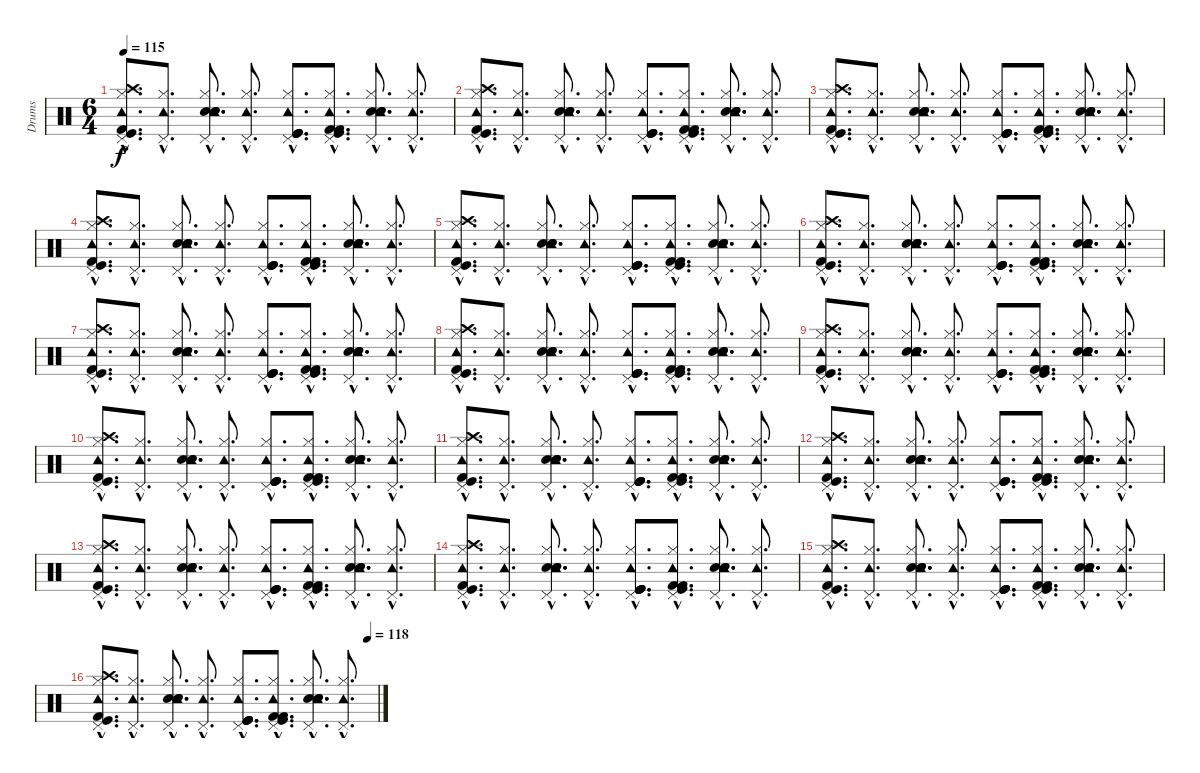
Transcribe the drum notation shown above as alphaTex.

\track ("Drums" "Drums") {instrument percussion}
\staff {score}
\articulation defaults
\ts (6 4)
\tempo 115
\clef neutral
\ks c
("Pedal Hi-Hat (hit)"{hac} "Crash high (hit)"{hac} "Kick (hit)"{hac} "Kick (hit) 2"{hac} "Hi-Hat (closed)"{hac} "Tambourine (hit)"{hac}).8{d dy f} ("Pedal Hi-Hat (hit)"{hac} "Hi-Hat (closed)"{hac} "Tambourine (hit)"{hac}).8{d} ("Pedal Hi-Hat (hit)"{hac} "Electric Snare (hit)"{hac} "Hand Clap (hit)"{hac} "Hand Clap (hit)"{hac} "Hi-Hat (closed)"{hac} "Tambourine (hit)"{hac}).8{d} ("Pedal Hi-Hat (hit)"{hac} "Hi-Hat (closed)"{hac} "Tambourine (hit)"{hac}).8{d} ("Pedal Hi-Hat (hit)"{hac} "Kick (hit)"{hac} "Kick (hit)"{hac} "Kick (hit)"{hac} "Hi-Hat (closed)"{hac} "Tambourine (hit)"{hac}).8{d} ("Pedal Hi-Hat (hit)"{hac} "Kick (hit)"{hac} "Kick (hit) 2"{hac} "Kick (hit) 2"{hac} "Hi-Hat (closed)"{hac} "Tambourine (hit)"{hac}).8{d} ("Pedal Hi-Hat (hit)"{hac} "Hand Clap (hit)"{hac} "Hand Clap (hit)"{hac} "Electric Snare (hit)"{hac} "Hi-Hat (closed)"{hac} "Tambourine (hit)"{hac}).8{d} ("Pedal Hi-Hat (hit)"{hac} "Hi-Hat (closed)"{hac} "Tambourine (hit)"{hac}).8{d} |
("Pedal Hi-Hat (hit)"{hac} "Crash high (hit)"{hac} "Kick (hit)"{hac} "Kick (hit) 2"{hac} "Hi-Hat (closed)"{hac} "Tambourine (hit)"{hac}).8{d} ("Pedal Hi-Hat (hit)"{hac} "Hi-Hat (closed)"{hac} "Tambourine (hit)"{hac}).8{d} ("Pedal Hi-Hat (hit)"{hac} "Electric Snare (hit)"{hac} "Hand Clap (hit)"{hac} "Hand Clap (hit)"{hac} "Hi-Hat (closed)"{hac} "Tambourine (hit)"{hac}).8{d} ("Pedal Hi-Hat (hit)"{hac} "Hi-Hat (closed)"{hac} "Tambourine (hit)"{hac}).8{d} ("Pedal Hi-Hat (hit)"{hac} "Kick (hit)"{hac} "Kick (hit)"{hac} "Kick (hit)"{hac} "Hi-Hat (closed)"{hac} "Tambourine (hit)"{hac}).8{d} ("Pedal Hi-Hat (hit)"{hac} "Kick (hit)"{hac} "Kick (hit) 2"{hac} "Kick (hit) 2"{hac} "Hi-Hat (closed)"{hac} "Tambourine (hit)"{hac}).8{d} ("Pedal Hi-Hat (hit)"{hac} "Hand Clap (hit)"{hac} "Hand Clap (hit)"{hac} "Electric Snare (hit)"{hac} "Hi-Hat (closed)"{hac} "Tambourine (hit)"{hac}).8{d} ("Pedal Hi-Hat (hit)"{hac} "Hi-Hat (closed)"{hac} "Tambourine (hit)"{hac}).8{d} |
("Pedal Hi-Hat (hit)"{hac} "Crash high (hit)"{hac} "Kick (hit)"{hac} "Kick (hit) 2"{hac} "Hi-Hat (closed)"{hac} "Tambourine (hit)"{hac}).8{d} ("Pedal Hi-Hat (hit)"{hac} "Hi-Hat (closed)"{hac} "Tambourine (hit)"{hac}).8{d} ("Pedal Hi-Hat (hit)"{hac} "Electric Snare (hit)"{hac} "Hand Clap (hit)"{hac} "Hand Clap (hit)"{hac} "Hi-Hat (closed)"{hac} "Tambourine (hit)"{hac}).8{d} ("Pedal Hi-Hat (hit)"{hac} "Hi-Hat (closed)"{hac} "Tambourine (hit)"{hac}).8{d} ("Pedal Hi-Hat (hit)"{hac} "Kick (hit)"{hac} "Kick (hit)"{hac} "Kick (hit)"{hac} "Hi-Hat (closed)"{hac} "Tambourine (hit)"{hac}).8{d} ("Pedal Hi-Hat (hit)"{hac} "Kick (hit)"{hac} "Kick (hit) 2"{hac} "Kick (hit) 2"{hac} "Hi-Hat (closed)"{hac} "Tambourine (hit)"{hac}).8{d} ("Pedal Hi-Hat (hit)"{hac} "Hand Clap (hit)"{hac} "Hand Clap (hit)"{hac} "Electric Snare (hit)"{hac} "Hi-Hat (closed)"{hac} "Tambourine (hit)"{hac}).8{d} ("Pedal Hi-Hat (hit)"{hac} "Hi-Hat (closed)"{hac} "Tambourine (hit)"{hac}).8{d} |
("Pedal Hi-Hat (hit)"{hac} "Crash high (hit)"{hac} "Kick (hit)"{hac} "Kick (hit) 2"{hac} "Hi-Hat (closed)"{hac} "Tambourine (hit)"{hac}).8{d} ("Pedal Hi-Hat (hit)"{hac} "Hi-Hat (closed)"{hac} "Tambourine (hit)"{hac}).8{d} ("Pedal Hi-Hat (hit)"{hac} "Electric Snare (hit)"{hac} "Hand Clap (hit)"{hac} "Hand Clap (hit)"{hac} "Hi-Hat (closed)"{hac} "Tambourine (hit)"{hac}).8{d} ("Pedal Hi-Hat (hit)"{hac} "Hi-Hat (closed)"{hac} "Tambourine (hit)"{hac}).8{d} ("Pedal Hi-Hat (hit)"{hac} "Kick (hit)"{hac} "Kick (hit)"{hac} "Kick (hit)"{hac} "Hi-Hat (closed)"{hac} "Tambourine (hit)"{hac}).8{d} ("Pedal Hi-Hat (hit)"{hac} "Kick (hit)"{hac} "Kick (hit) 2"{hac} "Kick (hit) 2"{hac} "Hi-Hat (closed)"{hac} "Tambourine (hit)"{hac}).8{d} ("Pedal Hi-Hat (hit)"{hac} "Hand Clap (hit)"{hac} "Hand Clap (hit)"{hac} "Electric Snare (hit)"{hac} "Hi-Hat (closed)"{hac} "Tambourine (hit)"{hac}).8{d} ("Pedal Hi-Hat (hit)"{hac} "Hi-Hat (closed)"{hac} "Tambourine (hit)"{hac}).8{d} |
("Pedal Hi-Hat (hit)"{hac} "Crash high (hit)"{hac} "Kick (hit)"{hac} "Kick (hit) 2"{hac} "Hi-Hat (closed)"{hac} "Tambourine (hit)"{hac}).8{d} ("Pedal Hi-Hat (hit)"{hac} "Hi-Hat (closed)"{hac} "Tambourine (hit)"{hac}).8{d} ("Pedal Hi-Hat (hit)"{hac} "Electric Snare (hit)"{hac} "Hand Clap (hit)"{hac} "Hand Clap (hit)"{hac} "Hi-Hat (closed)"{hac} "Tambourine (hit)"{hac}).8{d} ("Pedal Hi-Hat (hit)"{hac} "Hi-Hat (closed)"{hac} "Tambourine (hit)"{hac}).8{d} ("Pedal Hi-Hat (hit)"{hac} "Kick (hit)"{hac} "Kick (hit)"{hac} "Kick (hit)"{hac} "Hi-Hat (closed)"{hac} "Tambourine (hit)"{hac}).8{d} ("Pedal Hi-Hat (hit)"{hac} "Kick (hit)"{hac} "Kick (hit) 2"{hac} "Kick (hit) 2"{hac} "Hi-Hat (closed)"{hac} "Tambourine (hit)"{hac}).8{d} ("Pedal Hi-Hat (hit)"{hac} "Hand Clap (hit)"{hac} "Hand Clap (hit)"{hac} "Electric Snare (hit)"{hac} "Hi-Hat (closed)"{hac} "Tambourine (hit)"{hac}).8{d} ("Pedal Hi-Hat (hit)"{hac} "Hi-Hat (closed)"{hac} "Tambourine (hit)"{hac}).8{d} |
("Pedal Hi-Hat (hit)"{hac} "Crash high (hit)"{hac} "Kick (hit)"{hac} "Kick (hit) 2"{hac} "Hi-Hat (closed)"{hac} "Tambourine (hit)"{hac}).8{d} ("Pedal Hi-Hat (hit)"{hac} "Hi-Hat (closed)"{hac} "Tambourine (hit)"{hac}).8{d} ("Pedal Hi-Hat (hit)"{hac} "Electric Snare (hit)"{hac} "Hand Clap (hit)"{hac} "Hand Clap (hit)"{hac} "Hi-Hat (closed)"{hac} "Tambourine (hit)"{hac}).8{d} ("Pedal Hi-Hat (hit)"{hac} "Hi-Hat (closed)"{hac} "Tambourine (hit)"{hac}).8{d} ("Pedal Hi-Hat (hit)"{hac} "Kick (hit)"{hac} "Kick (hit)"{hac} "Kick (hit)"{hac} "Hi-Hat (closed)"{hac} "Tambourine (hit)"{hac}).8{d} ("Pedal Hi-Hat (hit)"{hac} "Kick (hit)"{hac} "Kick (hit) 2"{hac} "Kick (hit) 2"{hac} "Hi-Hat (closed)"{hac} "Tambourine (hit)"{hac}).8{d} ("Pedal Hi-Hat (hit)"{hac} "Hand Clap (hit)"{hac} "Hand Clap (hit)"{hac} "Electric Snare (hit)"{hac} "Hi-Hat (closed)"{hac} "Tambourine (hit)"{hac}).8{d} ("Pedal Hi-Hat (hit)"{hac} "Hi-Hat (closed)"{hac} "Tambourine (hit)"{hac}).8{d} |
("Pedal Hi-Hat (hit)"{hac} "Crash high (hit)"{hac} "Kick (hit)"{hac} "Kick (hit) 2"{hac} "Hi-Hat (closed)"{hac} "Tambourine (hit)"{hac}).8{d} ("Pedal Hi-Hat (hit)"{hac} "Hi-Hat (closed)"{hac} "Tambourine (hit)"{hac}).8{d} ("Pedal Hi-Hat (hit)"{hac} "Electric Snare (hit)"{hac} "Hand Clap (hit)"{hac} "Hand Clap (hit)"{hac} "Hi-Hat (closed)"{hac} "Tambourine (hit)"{hac}).8{d} ("Pedal Hi-Hat (hit)"{hac} "Hi-Hat (closed)"{hac} "Tambourine (hit)"{hac}).8{d} ("Pedal Hi-Hat (hit)"{hac} "Kick (hit)"{hac} "Kick (hit)"{hac} "Kick (hit)"{hac} "Hi-Hat (closed)"{hac} "Tambourine (hit)"{hac}).8{d} ("Pedal Hi-Hat (hit)"{hac} "Kick (hit)"{hac} "Kick (hit) 2"{hac} "Kick (hit) 2"{hac} "Hi-Hat (closed)"{hac} "Tambourine (hit)"{hac}).8{d} ("Pedal Hi-Hat (hit)"{hac} "Hand Clap (hit)"{hac} "Hand Clap (hit)"{hac} "Electric Snare (hit)"{hac} "Hi-Hat (closed)"{hac} "Tambourine (hit)"{hac}).8{d} ("Pedal Hi-Hat (hit)"{hac} "Hi-Hat (closed)"{hac} "Tambourine (hit)"{hac}).8{d} |
("Pedal Hi-Hat (hit)"{hac} "Crash high (hit)"{hac} "Kick (hit)"{hac} "Kick (hit) 2"{hac} "Hi-Hat (closed)"{hac} "Tambourine (hit)"{hac}).8{d} ("Pedal Hi-Hat (hit)"{hac} "Hi-Hat (closed)"{hac} "Tambourine (hit)"{hac}).8{d} ("Pedal Hi-Hat (hit)"{hac} "Electric Snare (hit)"{hac} "Hand Clap (hit)"{hac} "Hand Clap (hit)"{hac} "Hi-Hat (closed)"{hac} "Tambourine (hit)"{hac}).8{d} ("Pedal Hi-Hat (hit)"{hac} "Hi-Hat (closed)"{hac} "Tambourine (hit)"{hac}).8{d} ("Pedal Hi-Hat (hit)"{hac} "Kick (hit)"{hac} "Kick (hit)"{hac} "Kick (hit)"{hac} "Hi-Hat (closed)"{hac} "Tambourine (hit)"{hac}).8{d} ("Pedal Hi-Hat (hit)"{hac} "Kick (hit)"{hac} "Kick (hit) 2"{hac} "Kick (hit) 2"{hac} "Hi-Hat (closed)"{hac} "Tambourine (hit)"{hac}).8{d} ("Pedal Hi-Hat (hit)"{hac} "Hand Clap (hit)"{hac} "Hand Clap (hit)"{hac} "Electric Snare (hit)"{hac} "Hi-Hat (closed)"{hac} "Tambourine (hit)"{hac}).8{d} ("Pedal Hi-Hat (hit)"{hac} "Hi-Hat (closed)"{hac} "Tambourine (hit)"{hac}).8{d} |
("Pedal Hi-Hat (hit)"{hac} "Crash high (hit)"{hac} "Kick (hit)"{hac} "Kick (hit) 2"{hac} "Hi-Hat (closed)"{hac} "Tambourine (hit)"{hac}).8{d} ("Pedal Hi-Hat (hit)"{hac} "Hi-Hat (closed)"{hac} "Tambourine (hit)"{hac}).8{d} ("Pedal Hi-Hat (hit)"{hac} "Electric Snare (hit)"{hac} "Hand Clap (hit)"{hac} "Hand Clap (hit)"{hac} "Hi-Hat (closed)"{hac} "Tambourine (hit)"{hac}).8{d} ("Pedal Hi-Hat (hit)"{hac} "Hi-Hat (closed)"{hac} "Tambourine (hit)"{hac}).8{d} ("Pedal Hi-Hat (hit)"{hac} "Kick (hit)"{hac} "Kick (hit)"{hac} "Kick (hit)"{hac} "Hi-Hat (closed)"{hac} "Tambourine (hit)"{hac}).8{d} ("Pedal Hi-Hat (hit)"{hac} "Kick (hit)"{hac} "Kick (hit) 2"{hac} "Kick (hit) 2"{hac} "Hi-Hat (closed)"{hac} "Tambourine (hit)"{hac}).8{d} ("Pedal Hi-Hat (hit)"{hac} "Hand Clap (hit)"{hac} "Hand Clap (hit)"{hac} "Electric Snare (hit)"{hac} "Hi-Hat (closed)"{hac} "Tambourine (hit)"{hac}).8{d} ("Pedal Hi-Hat (hit)"{hac} "Hi-Hat (closed)"{hac} "Tambourine (hit)"{hac}).8{d} |
("Pedal Hi-Hat (hit)"{hac} "Crash high (hit)"{hac} "Kick (hit)"{hac} "Kick (hit) 2"{hac} "Hi-Hat (closed)"{hac} "Tambourine (hit)"{hac}).8{d} ("Pedal Hi-Hat (hit)"{hac} "Hi-Hat (closed)"{hac} "Tambourine (hit)"{hac}).8{d} ("Pedal Hi-Hat (hit)"{hac} "Electric Snare (hit)"{hac} "Hand Clap (hit)"{hac} "Hand Clap (hit)"{hac} "Hi-Hat (closed)"{hac} "Tambourine (hit)"{hac}).8{d} ("Pedal Hi-Hat (hit)"{hac} "Hi-Hat (closed)"{hac} "Tambourine (hit)"{hac}).8{d} ("Pedal Hi-Hat (hit)"{hac} "Kick (hit)"{hac} "Kick (hit)"{hac} "Kick (hit)"{hac} "Hi-Hat (closed)"{hac} "Tambourine (hit)"{hac}).8{d} ("Pedal Hi-Hat (hit)"{hac} "Kick (hit)"{hac} "Kick (hit) 2"{hac} "Kick (hit) 2"{hac} "Hi-Hat (closed)"{hac} "Tambourine (hit)"{hac}).8{d} ("Pedal Hi-Hat (hit)"{hac} "Hand Clap (hit)"{hac} "Hand Clap (hit)"{hac} "Electric Snare (hit)"{hac} "Hi-Hat (closed)"{hac} "Tambourine (hit)"{hac}).8{d} ("Pedal Hi-Hat (hit)"{hac} "Hi-Hat (closed)"{hac} "Tambourine (hit)"{hac}).8{d} |
("Pedal Hi-Hat (hit)"{hac} "Crash high (hit)"{hac} "Kick (hit)"{hac} "Kick (hit) 2"{hac} "Hi-Hat (closed)"{hac} "Tambourine (hit)"{hac}).8{d} ("Pedal Hi-Hat (hit)"{hac} "Hi-Hat (closed)"{hac} "Tambourine (hit)"{hac}).8{d} ("Pedal Hi-Hat (hit)"{hac} "Electric Snare (hit)"{hac} "Hand Clap (hit)"{hac} "Hand Clap (hit)"{hac} "Hi-Hat (closed)"{hac} "Tambourine (hit)"{hac}).8{d} ("Pedal Hi-Hat (hit)"{hac} "Hi-Hat (closed)"{hac} "Tambourine (hit)"{hac}).8{d} ("Pedal Hi-Hat (hit)"{hac} "Kick (hit)"{hac} "Kick (hit)"{hac} "Kick (hit)"{hac} "Hi-Hat (closed)"{hac} "Tambourine (hit)"{hac}).8{d} ("Pedal Hi-Hat (hit)"{hac} "Kick (hit)"{hac} "Kick (hit) 2"{hac} "Kick (hit) 2"{hac} "Hi-Hat (closed)"{hac} "Tambourine (hit)"{hac}).8{d} ("Pedal Hi-Hat (hit)"{hac} "Hand Clap (hit)"{hac} "Hand Clap (hit)"{hac} "Electric Snare (hit)"{hac} "Hi-Hat (closed)"{hac} "Tambourine (hit)"{hac}).8{d} ("Pedal Hi-Hat (hit)"{hac} "Hi-Hat (closed)"{hac} "Tambourine (hit)"{hac}).8{d} |
("Pedal Hi-Hat (hit)"{hac} "Crash high (hit)"{hac} "Kick (hit)"{hac} "Kick (hit) 2"{hac} "Hi-Hat (closed)"{hac} "Tambourine (hit)"{hac}).8{d} ("Pedal Hi-Hat (hit)"{hac} "Hi-Hat (closed)"{hac} "Tambourine (hit)"{hac}).8{d} ("Pedal Hi-Hat (hit)"{hac} "Electric Snare (hit)"{hac} "Hand Clap (hit)"{hac} "Hand Clap (hit)"{hac} "Hi-Hat (closed)"{hac} "Tambourine (hit)"{hac}).8{d} ("Pedal Hi-Hat (hit)"{hac} "Hi-Hat (closed)"{hac} "Tambourine (hit)"{hac}).8{d} ("Pedal Hi-Hat (hit)"{hac} "Kick (hit)"{hac} "Kick (hit)"{hac} "Kick (hit)"{hac} "Hi-Hat (closed)"{hac} "Tambourine (hit)"{hac}).8{d} ("Pedal Hi-Hat (hit)"{hac} "Kick (hit)"{hac} "Kick (hit) 2"{hac} "Kick (hit) 2"{hac} "Hi-Hat (closed)"{hac} "Tambourine (hit)"{hac}).8{d} ("Pedal Hi-Hat (hit)"{hac} "Hand Clap (hit)"{hac} "Hand Clap (hit)"{hac} "Electric Snare (hit)"{hac} "Hi-Hat (closed)"{hac} "Tambourine (hit)"{hac}).8{d} ("Pedal Hi-Hat (hit)"{hac} "Hi-Hat (closed)"{hac} "Tambourine (hit)"{hac}).8{d} |
("Pedal Hi-Hat (hit)"{hac} "Crash high (hit)"{hac} "Kick (hit)"{hac} "Kick (hit) 2"{hac} "Hi-Hat (closed)"{hac} "Tambourine (hit)"{hac}).8{d} ("Pedal Hi-Hat (hit)"{hac} "Hi-Hat (closed)"{hac} "Tambourine (hit)"{hac}).8{d} ("Pedal Hi-Hat (hit)"{hac} "Electric Snare (hit)"{hac} "Hand Clap (hit)"{hac} "Hand Clap (hit)"{hac} "Hi-Hat (closed)"{hac} "Tambourine (hit)"{hac}).8{d} ("Pedal Hi-Hat (hit)"{hac} "Hi-Hat (closed)"{hac} "Tambourine (hit)"{hac}).8{d} ("Pedal Hi-Hat (hit)"{hac} "Kick (hit)"{hac} "Kick (hit)"{hac} "Kick (hit)"{hac} "Hi-Hat (closed)"{hac} "Tambourine (hit)"{hac}).8{d} ("Pedal Hi-Hat (hit)"{hac} "Kick (hit)"{hac} "Kick (hit) 2"{hac} "Kick (hit) 2"{hac} "Hi-Hat (closed)"{hac} "Tambourine (hit)"{hac}).8{d} ("Pedal Hi-Hat (hit)"{hac} "Hand Clap (hit)"{hac} "Hand Clap (hit)"{hac} "Electric Snare (hit)"{hac} "Hi-Hat (closed)"{hac} "Tambourine (hit)"{hac}).8{d} ("Pedal Hi-Hat (hit)"{hac} "Hi-Hat (closed)"{hac} "Tambourine (hit)"{hac}).8{d} |
("Pedal Hi-Hat (hit)"{hac} "Crash high (hit)"{hac} "Kick (hit)"{hac} "Kick (hit) 2"{hac} "Hi-Hat (closed)"{hac} "Tambourine (hit)"{hac}).8{d} ("Pedal Hi-Hat (hit)"{hac} "Hi-Hat (closed)"{hac} "Tambourine (hit)"{hac}).8{d} ("Pedal Hi-Hat (hit)"{hac} "Electric Snare (hit)"{hac} "Hand Clap (hit)"{hac} "Hand Clap (hit)"{hac} "Hi-Hat (closed)"{hac} "Tambourine (hit)"{hac}).8{d} ("Pedal Hi-Hat (hit)"{hac} "Hi-Hat (closed)"{hac} "Tambourine (hit)"{hac}).8{d} ("Pedal Hi-Hat (hit)"{hac} "Kick (hit)"{hac} "Kick (hit)"{hac} "Kick (hit)"{hac} "Hi-Hat (closed)"{hac} "Tambourine (hit)"{hac}).8{d} ("Pedal Hi-Hat (hit)"{hac} "Kick (hit)"{hac} "Kick (hit) 2"{hac} "Kick (hit) 2"{hac} "Hi-Hat (closed)"{hac} "Tambourine (hit)"{hac}).8{d} ("Pedal Hi-Hat (hit)"{hac} "Hand Clap (hit)"{hac} "Hand Clap (hit)"{hac} "Electric Snare (hit)"{hac} "Hi-Hat (closed)"{hac} "Tambourine (hit)"{hac}).8{d} ("Pedal Hi-Hat (hit)"{hac} "Hi-Hat (closed)"{hac} "Tambourine (hit)"{hac}).8{d} |
("Pedal Hi-Hat (hit)"{hac} "Crash high (hit)"{hac} "Kick (hit)"{hac} "Kick (hit) 2"{hac} "Hi-Hat (closed)"{hac} "Tambourine (hit)"{hac}).8{d} ("Pedal Hi-Hat (hit)"{hac} "Hi-Hat (closed)"{hac} "Tambourine (hit)"{hac}).8{d} ("Pedal Hi-Hat (hit)"{hac} "Electric Snare (hit)"{hac} "Hand Clap (hit)"{hac} "Hand Clap (hit)"{hac} "Hi-Hat (closed)"{hac} "Tambourine (hit)"{hac}).8{d} ("Pedal Hi-Hat (hit)"{hac} "Hi-Hat (closed)"{hac} "Tambourine (hit)"{hac}).8{d} ("Pedal Hi-Hat (hit)"{hac} "Kick (hit)"{hac} "Kick (hit)"{hac} "Kick (hit)"{hac} "Hi-Hat (closed)"{hac} "Tambourine (hit)"{hac}).8{d} ("Pedal Hi-Hat (hit)"{hac} "Kick (hit)"{hac} "Kick (hit) 2"{hac} "Kick (hit) 2"{hac} "Hi-Hat (closed)"{hac} "Tambourine (hit)"{hac}).8{d} ("Pedal Hi-Hat (hit)"{hac} "Hand Clap (hit)"{hac} "Hand Clap (hit)"{hac} "Electric Snare (hit)"{hac} "Hi-Hat (closed)"{hac} "Tambourine (hit)"{hac}).8{d} ("Pedal Hi-Hat (hit)"{hac} "Hi-Hat (closed)"{hac} "Tambourine (hit)"{hac}).8{d} |
\tempo (118 0.9652777777777778)
("Pedal Hi-Hat (hit)"{hac} "Crash high (hit)"{hac} "Kick (hit)"{hac} "Kick (hit) 2"{hac} "Hi-Hat (closed)"{hac} "Tambourine (hit)"{hac}).8{d} ("Pedal Hi-Hat (hit)"{hac} "Hi-Hat (closed)"{hac} "Tambourine (hit)"{hac}).8{d} ("Pedal Hi-Hat (hit)"{hac} "Electric Snare (hit)"{hac} "Hand Clap (hit)"{hac} "Hand Clap (hit)"{hac} "Hi-Hat (closed)"{hac} "Tambourine (hit)"{hac}).8{d} ("Pedal Hi-Hat (hit)"{hac} "Hi-Hat (closed)"{hac} "Tambourine (hit)"{hac}).8{d} ("Pedal Hi-Hat (hit)"{hac} "Kick (hit)"{hac} "Kick (hit)"{hac} "Kick (hit)"{hac} "Hi-Hat (closed)"{hac} "Tambourine (hit)"{hac}).8{d} ("Pedal Hi-Hat (hit)"{hac} "Kick (hit)"{hac} "Kick (hit) 2"{hac} "Kick (hit) 2"{hac} "Hi-Hat (closed)"{hac} "Tambourine (hit)"{hac}).8{d} ("Pedal Hi-Hat (hit)"{hac} "Hand Clap (hit)"{hac} "Hand Clap (hit)"{hac} "Electric Snare (hit)"{hac} "Hi-Hat (closed)"{hac} "Tambourine (hit)"{hac}).8{d} ("Pedal Hi-Hat (hit)"{hac} "Hi-Hat (closed)"{hac} "Tambourine (hit)"{hac}).8{d}
